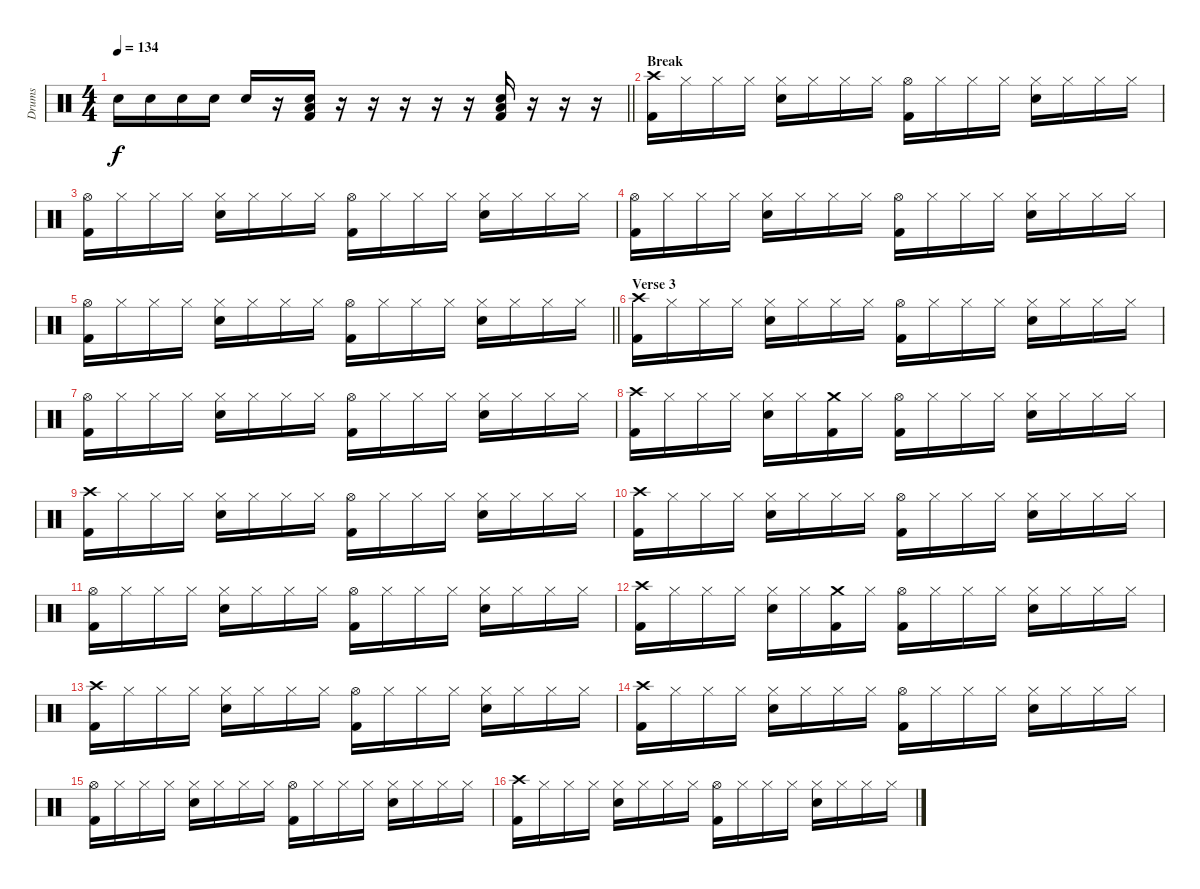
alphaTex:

\track ("Drums" "Drums") {instrument percussion}
\staff {score}
\articulation defaults
\ts (4 4)
\tempo 134
\clef neutral
\barLineRight lightlight
\ks c "Snare (hit) 2".16{dy f} "Snare (hit) 2".16 "Snare (hit) 2".16 "Snare (hit) 2".16 "Snare (hit) 2".16
r.16 ("Snare (hit) 2" "Low Floor Tom (hit)" "Kick (hit) 2").16 r.16 r.16 r.16 r.16 r.16 ("Snare (hit) 2" "Low Floor Tom (hit)" "Kick (hit) 2").16 r.16 r.16 r.16 |
\section ("" "Break")
("Crash high (hit)" "Kick (hit) 2").16 "Hi-Hat (closed)".16 "Hi-Hat (closed)".16 "Hi-Hat (closed)".16 ("Hi-Hat (closed)" "Snare (hit) 2").16 "Hi-Hat (closed)".16 "Hi-Hat (closed)".16 "Hi-Hat (closed)".16 ("Hi-Hat (open)" "Kick (hit) 2").16 "Hi-Hat (closed)".16 "Hi-Hat (closed)".16 "Hi-Hat (closed)".16 ("Hi-Hat (closed)" "Snare (hit) 2").16 "Hi-Hat (closed)".16 "Hi-Hat (closed)".16 "Hi-Hat (closed)".16 |
("Hi-Hat (open)" "Kick (hit) 2").16 "Hi-Hat (closed)".16 "Hi-Hat (closed)".16 "Hi-Hat (closed)".16 ("Hi-Hat (closed)" "Snare (hit) 2").16 "Hi-Hat (closed)".16 "Hi-Hat (closed)".16 "Hi-Hat (closed)".16 ("Hi-Hat (open)" "Kick (hit) 2").16 "Hi-Hat (closed)".16 "Hi-Hat (closed)".16 "Hi-Hat (closed)".16 ("Hi-Hat (closed)" "Snare (hit) 2").16 "Hi-Hat (closed)".16 "Hi-Hat (closed)".16 "Hi-Hat (closed)".16 |
("Hi-Hat (open)" "Kick (hit) 2").16 "Hi-Hat (closed)".16 "Hi-Hat (closed)".16 "Hi-Hat (closed)".16 ("Hi-Hat (closed)" "Snare (hit) 2").16 "Hi-Hat (closed)".16 "Hi-Hat (closed)".16 "Hi-Hat (closed)".16 ("Hi-Hat (open)" "Kick (hit) 2").16 "Hi-Hat (closed)".16 "Hi-Hat (closed)".16 "Hi-Hat (closed)".16 ("Hi-Hat (closed)" "Snare (hit) 2").16 "Hi-Hat (closed)".16 "Hi-Hat (closed)".16 "Hi-Hat (closed)".16 |
\barLineRight lightlight
("Hi-Hat (open)" "Kick (hit) 2").16 "Hi-Hat (closed)".16 "Hi-Hat (closed)".16 "Hi-Hat (closed)".16 ("Hi-Hat (closed)" "Snare (hit) 2").16 "Hi-Hat (closed)".16 "Hi-Hat (closed)".16 "Hi-Hat (closed)".16 ("Hi-Hat (open)" "Kick (hit) 2").16 "Hi-Hat (closed)".16 "Hi-Hat (closed)".16 "Hi-Hat (closed)".16 ("Hi-Hat (closed)" "Snare (hit) 2").16 "Hi-Hat (closed)".16 "Hi-Hat (closed)".16 "Hi-Hat (closed)".16 |
\section ("" "Verse 3")
("Crash high (hit)" "Kick (hit) 2").16 "Hi-Hat (closed)".16 "Hi-Hat (closed)".16 "Hi-Hat (closed)".16 ("Hi-Hat (closed)" "Snare (hit) 2").16 "Hi-Hat (closed)".16 "Hi-Hat (closed)".16 "Hi-Hat (closed)".16 ("Hi-Hat (open)" "Kick (hit) 2").16 "Hi-Hat (closed)".16 "Hi-Hat (closed)".16 "Hi-Hat (closed)".16 ("Hi-Hat (closed)" "Snare (hit) 2").16 "Hi-Hat (closed)".16 "Hi-Hat (closed)".16 "Hi-Hat (closed)".16 |
("Hi-Hat (open)" "Kick (hit) 2").16 "Hi-Hat (closed)".16 "Hi-Hat (closed)".16 "Hi-Hat (closed)".16 ("Hi-Hat (closed)" "Snare (hit) 2").16 "Hi-Hat (closed)".16 "Hi-Hat (closed)".16 "Hi-Hat (closed)".16 ("Hi-Hat (open)" "Kick (hit) 2").16 "Hi-Hat (closed)".16 "Hi-Hat (closed)".16 "Hi-Hat (closed)".16 ("Hi-Hat (closed)" "Snare (hit) 2").16 "Hi-Hat (closed)".16 "Hi-Hat (closed)".16 "Hi-Hat (closed)".16 |
("Crash high (hit)" "Kick (hit) 2").16 "Hi-Hat (closed)".16 "Hi-Hat (closed)".16 "Hi-Hat (closed)".16 ("Hi-Hat (closed)" "Snare (hit) 2").16 "Hi-Hat (closed)".16 ("Crash medium (hit)" "Kick (hit) 2").16 "Hi-Hat (closed)".16 ("Hi-Hat (open)" "Kick (hit) 2").16 "Hi-Hat (closed)".16 "Hi-Hat (closed)".16 "Hi-Hat (closed)".16 ("Hi-Hat (closed)" "Snare (hit) 2").16 "Hi-Hat (closed)".16 "Hi-Hat (closed)".16 "Hi-Hat (closed)".16 |
("Crash high (hit)" "Kick (hit) 2").16 "Hi-Hat (closed)".16 "Hi-Hat (closed)".16 "Hi-Hat (closed)".16 ("Hi-Hat (closed)" "Snare (hit) 2").16 "Hi-Hat (closed)".16 "Hi-Hat (closed)".16 "Hi-Hat (closed)".16 ("Hi-Hat (open)" "Kick (hit) 2").16 "Hi-Hat (closed)".16 "Hi-Hat (closed)".16 "Hi-Hat (closed)".16 ("Hi-Hat (closed)" "Snare (hit) 2").16 "Hi-Hat (closed)".16 "Hi-Hat (closed)".16 "Hi-Hat (closed)".16 |
("Crash high (hit)" "Kick (hit) 2").16 "Hi-Hat (closed)".16 "Hi-Hat (closed)".16 "Hi-Hat (closed)".16 ("Hi-Hat (closed)" "Snare (hit) 2").16 "Hi-Hat (closed)".16 "Hi-Hat (closed)".16 "Hi-Hat (closed)".16 ("Hi-Hat (open)" "Kick (hit) 2").16 "Hi-Hat (closed)".16 "Hi-Hat (closed)".16 "Hi-Hat (closed)".16 ("Hi-Hat (closed)" "Snare (hit) 2").16 "Hi-Hat (closed)".16 "Hi-Hat (closed)".16 "Hi-Hat (closed)".16 |
("Hi-Hat (open)" "Kick (hit) 2").16 "Hi-Hat (closed)".16 "Hi-Hat (closed)".16 "Hi-Hat (closed)".16 ("Hi-Hat (closed)" "Snare (hit) 2").16 "Hi-Hat (closed)".16 "Hi-Hat (closed)".16 "Hi-Hat (closed)".16 ("Hi-Hat (open)" "Kick (hit) 2").16 "Hi-Hat (closed)".16 "Hi-Hat (closed)".16 "Hi-Hat (closed)".16 ("Hi-Hat (closed)" "Snare (hit) 2").16 "Hi-Hat (closed)".16 "Hi-Hat (closed)".16 "Hi-Hat (closed)".16 |
("Crash high (hit)" "Kick (hit) 2").16 "Hi-Hat (closed)".16 "Hi-Hat (closed)".16 "Hi-Hat (closed)".16 ("Hi-Hat (closed)" "Snare (hit) 2").16 "Hi-Hat (closed)".16 ("Crash medium (hit)" "Kick (hit) 2").16 "Hi-Hat (closed)".16 ("Hi-Hat (open)" "Kick (hit) 2").16 "Hi-Hat (closed)".16 "Hi-Hat (closed)".16 "Hi-Hat (closed)".16 ("Hi-Hat (closed)" "Snare (hit) 2").16 "Hi-Hat (closed)".16 "Hi-Hat (closed)".16 "Hi-Hat (closed)".16 |
("Crash high (hit)" "Kick (hit) 2").16 "Hi-Hat (closed)".16 "Hi-Hat (closed)".16 "Hi-Hat (closed)".16 ("Hi-Hat (closed)" "Snare (hit) 2").16 "Hi-Hat (closed)".16 "Hi-Hat (closed)".16 "Hi-Hat (closed)".16 ("Hi-Hat (open)" "Kick (hit) 2").16 "Hi-Hat (closed)".16 "Hi-Hat (closed)".16 "Hi-Hat (closed)".16 ("Hi-Hat (closed)" "Snare (hit) 2").16 "Hi-Hat (closed)".16 "Hi-Hat (closed)".16 "Hi-Hat (closed)".16 |
("Crash high (hit)" "Kick (hit) 2").16 "Hi-Hat (closed)".16 "Hi-Hat (closed)".16 "Hi-Hat (closed)".16 ("Hi-Hat (closed)" "Snare (hit) 2").16 "Hi-Hat (closed)".16 "Hi-Hat (closed)".16 "Hi-Hat (closed)".16 ("Hi-Hat (open)" "Kick (hit) 2").16 "Hi-Hat (closed)".16 "Hi-Hat (closed)".16 "Hi-Hat (closed)".16 ("Hi-Hat (closed)" "Snare (hit) 2").16 "Hi-Hat (closed)".16 "Hi-Hat (closed)".16 "Hi-Hat (closed)".16 |
("Hi-Hat (open)" "Kick (hit) 2").16 "Hi-Hat (closed)".16 "Hi-Hat (closed)".16 "Hi-Hat (closed)".16 ("Hi-Hat (closed)" "Snare (hit) 2").16 "Hi-Hat (closed)".16 "Hi-Hat (closed)".16 "Hi-Hat (closed)".16 ("Hi-Hat (open)" "Kick (hit) 2").16 "Hi-Hat (closed)".16 "Hi-Hat (closed)".16 "Hi-Hat (closed)".16 ("Hi-Hat (closed)" "Snare (hit) 2").16 "Hi-Hat (closed)".16 "Hi-Hat (closed)".16 "Hi-Hat (closed)".16 |
("Crash high (hit)" "Kick (hit) 2").16 "Hi-Hat (closed)".16 "Hi-Hat (closed)".16 "Hi-Hat (closed)".16 ("Hi-Hat (closed)" "Snare (hit) 2").16 "Hi-Hat (closed)".16 "Hi-Hat (closed)".16 "Hi-Hat (closed)".16 ("Hi-Hat (open)" "Kick (hit) 2").16 "Hi-Hat (closed)".16 "Hi-Hat (closed)".16 "Hi-Hat (closed)".16 ("Hi-Hat (closed)" "Snare (hit) 2").16 "Hi-Hat (closed)".16 "Hi-Hat (closed)".16 "Hi-Hat (closed)".16
